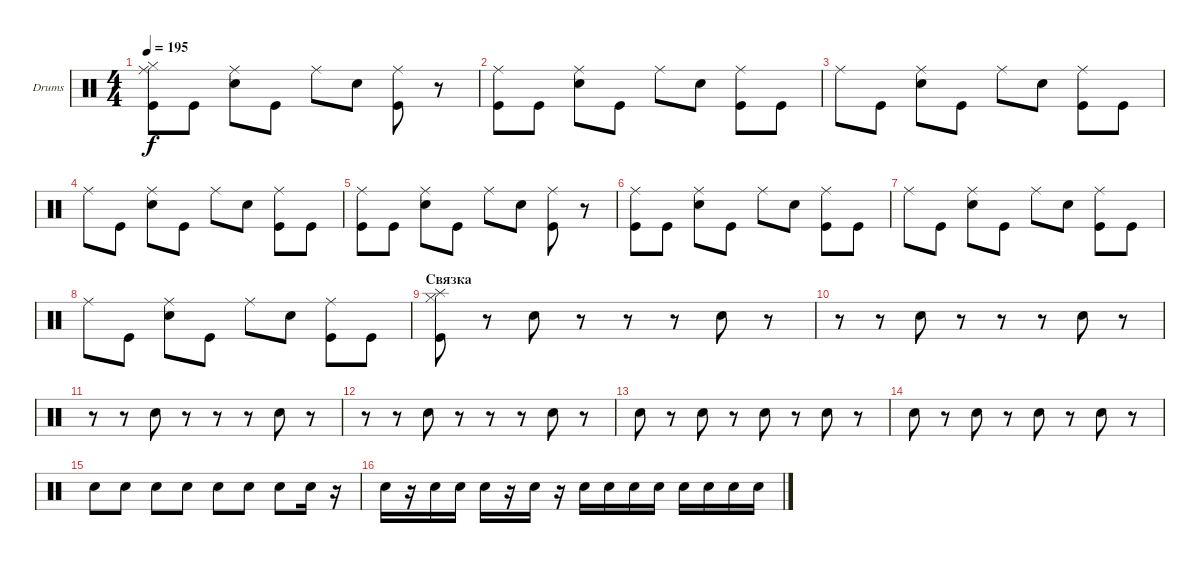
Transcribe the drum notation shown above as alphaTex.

\defaultSystemsLayout 4
\bracketExtendMode groupsimilarinstruments
\firstSystemTrackNameOrientation horizontal
\otherSystemsTrackNameOrientation horizontal
\track ("Drumkit" "Drums") {instrument percussion}
\staff {score}
\articulation defaults
\ts (4 4)
\tempo 195
\clef neutral
\ks c
("Kick (hit)" "Ride (middle)" "Hi-Hat (closed)").8{dy f} "Kick (hit)".8 ("Ride (middle)" "Snare (hit) 2").8 "Kick (hit)".8 "Ride (middle)".8 "Snare (hit) 2".8 ("Ride (middle)" "Kick (hit)").8 r.8 |
("Kick (hit)" "Ride (middle)").8 "Kick (hit)".8 ("Ride (middle)" "Snare (hit) 2").8 "Kick (hit)".8 "Ride (middle)".8 "Snare (hit) 2".8 ("Ride (middle)" "Kick (hit)").8 "Kick (hit)".8 |
"Ride (middle)".8 "Kick (hit)".8 ("Ride (middle)" "Snare (hit) 2").8 "Kick (hit)".8 "Ride (middle)".8 "Snare (hit) 2".8 ("Ride (middle)" "Kick (hit)").8 "Kick (hit)".8 |
"Ride (middle)".8 "Kick (hit)".8 ("Ride (middle)" "Snare (hit) 2").8 "Kick (hit)".8 "Ride (middle)".8 "Snare (hit) 2".8 ("Ride (middle)" "Kick (hit)").8 "Kick (hit)".8 |
("Kick (hit)" "Ride (middle)").8 "Kick (hit)".8 ("Ride (middle)" "Snare (hit) 2").8 "Kick (hit)".8 "Ride (middle)".8 "Snare (hit) 2".8 ("Ride (middle)" "Kick (hit)").8 r.8 |
("Kick (hit)" "Ride (middle)").8 "Kick (hit)".8 ("Ride (middle)" "Snare (hit) 2").8 "Kick (hit)".8 "Ride (middle)".8 "Snare (hit) 2".8 ("Ride (middle)" "Kick (hit)").8 "Kick (hit)".8 |
"Ride (middle)".8 "Kick (hit)".8 ("Ride (middle)" "Snare (hit) 2").8 "Kick (hit)".8 "Ride (middle)".8 "Snare (hit) 2".8 ("Ride (middle)" "Kick (hit)").8 "Kick (hit)".8 |
"Ride (middle)".8 "Kick (hit)".8 ("Ride (middle)" "Snare (hit) 2").8 "Kick (hit)".8 "Ride (middle)".8 "Snare (hit) 2".8 ("Ride (middle)" "Kick (hit)").8 "Kick (hit)".8 |
\section ("" "Связка")
("Kick (hit)" "Hi-Hat (closed)" "Splash (hit)").8 r.8 "Snare (hit) 2".8 r.8 r.8 r.8 "Snare (hit) 2".8 r.8 |
r.8 r.8 "Snare (hit) 2".8 r.8 r.8 r.8 "Snare (hit) 2".8 r.8 |
r.8 r.8 "Snare (hit) 2".8 r.8 r.8 r.8 "Snare (hit) 2".8 r.8 |
r.8 r.8 "Snare (hit) 2".8 r.8 r.8 r.8 "Snare (hit) 2".8 r.8 |
"Snare (hit) 2".8 r.8 "Snare (hit) 2".8 r.8 "Snare (hit) 2".8 r.8 "Snare (hit) 2".8 r.8 |
"Snare (hit) 2".8 r.8 "Snare (hit) 2".8 r.8 "Snare (hit) 2".8 r.8 "Snare (hit) 2".8 r.8 |
"Snare (hit) 2".8 "Snare (hit) 2".8 "Snare (hit) 2".8 "Snare (hit) 2".8 "Snare (hit) 2".8 "Snare (hit) 2".8 "Snare (hit) 2".8 "Snare (hit) 2".16 r.16 |
"Snare (hit) 2".16 r.16 "Snare (hit) 2".16 "Snare (hit) 2".16 "Snare (hit) 2".16 r.16 "Snare (hit) 2".16 r.16 "Snare (hit) 2".16 "Snare (hit) 2".16 "Snare (hit) 2".16 "Snare (hit) 2".16 "Snare (hit) 2".16 "Snare (hit) 2".16 "Snare (hit) 2".16 "Snare (hit) 2".16
